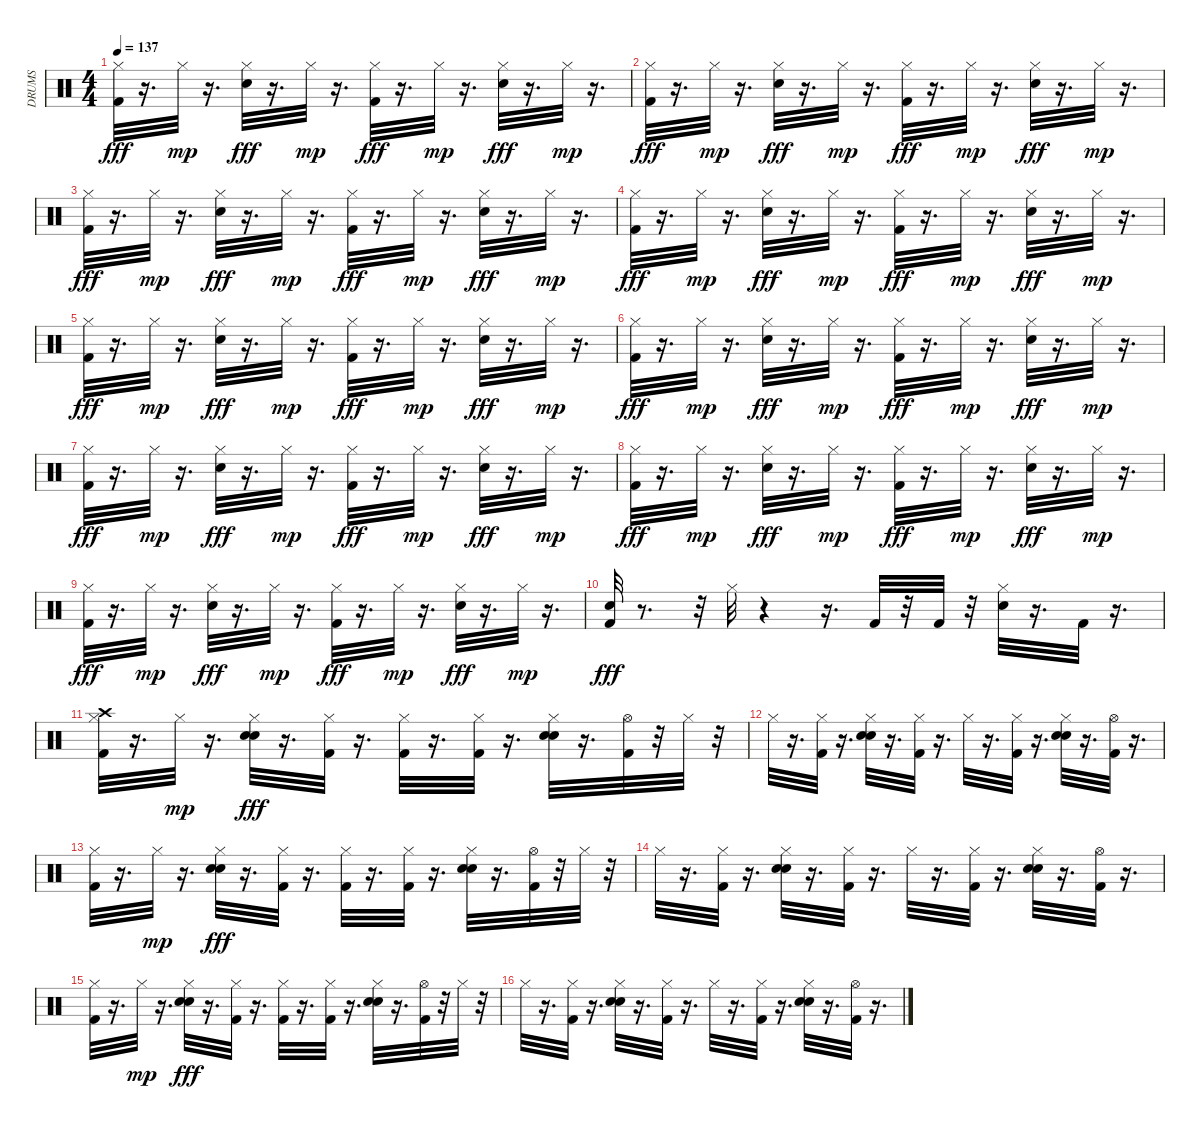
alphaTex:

\track ("DRUMS" "DRUMS") {instrument percussion}
\staff {score}
\articulation defaults
\ts (4 4)
\tempo 137
\clef neutral
\ks c
("Hi-Hat (closed)" "Kick (hit) 2").32{dy fff} r.16{d} "Hi-Hat (closed)".32{dy mp} r.16{d} ("Hi-Hat (closed)" "Snare (hit) 2").32{dy fff} r.16{d} "Hi-Hat (closed)".32{dy mp} r.16{d} ("Hi-Hat (closed)" "Kick (hit) 2").32{dy fff} r.16{d} "Hi-Hat (closed)".32{dy mp} r.16{d} ("Hi-Hat (closed)" "Snare (hit) 2").32{dy fff} r.16{d} "Hi-Hat (closed)".32{dy mp} r.16{d} |
("Hi-Hat (closed)" "Kick (hit) 2").32{dy fff} r.16{d} "Hi-Hat (closed)".32{dy mp} r.16{d} ("Hi-Hat (closed)" "Snare (hit) 2").32{dy fff} r.16{d} "Hi-Hat (closed)".32{dy mp} r.16{d} ("Hi-Hat (closed)" "Kick (hit) 2").32{dy fff} r.16{d} "Hi-Hat (closed)".32{dy mp} r.16{d} ("Hi-Hat (closed)" "Snare (hit) 2").32{dy fff} r.16{d} "Hi-Hat (closed)".32{dy mp} r.16{d} |
("Hi-Hat (closed)" "Kick (hit) 2").32{dy fff} r.16{d} "Hi-Hat (closed)".32{dy mp} r.16{d} ("Hi-Hat (closed)" "Snare (hit) 2").32{dy fff} r.16{d} "Hi-Hat (closed)".32{dy mp} r.16{d} ("Hi-Hat (closed)" "Kick (hit) 2").32{dy fff} r.16{d} "Hi-Hat (closed)".32{dy mp} r.16{d} ("Hi-Hat (closed)" "Snare (hit) 2").32{dy fff} r.16{d} "Hi-Hat (closed)".32{dy mp} r.16{d} |
("Hi-Hat (closed)" "Kick (hit) 2").32{dy fff} r.16{d} "Hi-Hat (closed)".32{dy mp} r.16{d} ("Hi-Hat (closed)" "Snare (hit) 2").32{dy fff} r.16{d} "Hi-Hat (closed)".32{dy mp} r.16{d} ("Hi-Hat (closed)" "Kick (hit) 2").32{dy fff} r.16{d} "Hi-Hat (closed)".32{dy mp} r.16{d} ("Snare (hit) 2" "Hi-Hat (closed)").32{dy fff} r.16{d} "Hi-Hat (closed)".32{dy mp} r.16{d} |
("Hi-Hat (closed)" "Kick (hit) 2").32{dy fff} r.16{d} "Hi-Hat (closed)".32{dy mp} r.16{d} ("Hi-Hat (closed)" "Snare (hit) 2").32{dy fff} r.16{d} "Hi-Hat (closed)".32{dy mp} r.16{d} ("Hi-Hat (closed)" "Kick (hit) 2").32{dy fff} r.16{d} "Hi-Hat (closed)".32{dy mp} r.16{d} ("Hi-Hat (closed)" "Snare (hit) 2").32{dy fff} r.16{d} "Hi-Hat (closed)".32{dy mp} r.16{d} |
("Kick (hit) 2" "Hi-Hat (closed)").32{dy fff} r.16{d} "Hi-Hat (closed)".32{dy mp} r.16{d} ("Hi-Hat (closed)" "Snare (hit) 2").32{dy fff} r.16{d} "Hi-Hat (closed)".32{dy mp} r.16{d} ("Hi-Hat (closed)" "Kick (hit) 2").32{dy fff} r.16{d} "Hi-Hat (closed)".32{dy mp} r.16{d} ("Hi-Hat (closed)" "Snare (hit) 2").32{dy fff} r.16{d} "Hi-Hat (closed)".32{dy mp} r.16{d} |
("Hi-Hat (closed)" "Kick (hit) 2").32{dy fff} r.16{d} "Hi-Hat (closed)".32{dy mp} r.16{d} ("Hi-Hat (closed)" "Snare (hit) 2").32{dy fff} r.16{d} "Hi-Hat (closed)".32{dy mp} r.16{d} ("Kick (hit) 2" "Hi-Hat (closed)").32{dy fff} r.16{d} "Hi-Hat (closed)".32{dy mp} r.16{d} ("Snare (hit) 2" "Hi-Hat (closed)").32{dy fff} r.16{d} "Hi-Hat (closed)".32{dy mp} r.16{d} |
("Hi-Hat (closed)" "Kick (hit) 2").32{dy fff} r.16{d} "Hi-Hat (closed)".32{dy mp} r.16{d} ("Hi-Hat (closed)" "Snare (hit) 2").32{dy fff} r.16{d} "Hi-Hat (closed)".32{dy mp} r.16{d} ("Hi-Hat (closed)" "Kick (hit) 2").32{dy fff} r.16{d} "Hi-Hat (closed)".32{dy mp} r.16{d} ("Hi-Hat (closed)" "Snare (hit) 2").32{dy fff} r.16{d} "Hi-Hat (closed)".32{dy mp} r.16{d} |
("Hi-Hat (closed)" "Kick (hit) 2").32{dy fff} r.16{d} "Hi-Hat (closed)".32{dy mp} r.16{d} ("Hi-Hat (closed)" "Snare (hit) 2").32{dy fff} r.16{d} "Hi-Hat (closed)".32{dy mp} r.16{d} ("Hi-Hat (closed)" "Kick (hit) 2").32{dy fff} r.16{d} "Hi-Hat (closed)".32{dy mp} r.16{d} ("Hi-Hat (closed)" "Snare (hit) 2").32{dy fff} r.16{d} "Hi-Hat (closed)".32{dy mp} r.16{d} |
("Snare (hit) 2" "Kick (hit) 2").32{dy fff} r.8{d} r.32 "Hi-Hat (closed)".32 r.4 r.16{d} "Kick (hit) 2".32 r.32 "Kick (hit) 2".32 r.32 ("Hi-Hat (closed)" "Snare (hit) 2").32 r.16{d} "Kick (hit) 2".32 r.16{d} |
("Crash high (hit)" "Hi-Hat (closed)" "Kick (hit) 2").32 r.16{d} "Hi-Hat (closed)".32{dy mp} r.16{d} ("Hand Clap (hit)" "Hi-Hat (closed)" "Snare (hit) 2").32{dy fff} r.16{d} ("Hi-Hat (closed)" "Kick (hit) 2").32 r.16{d} ("Hi-Hat (closed)" "Kick (hit) 2").32 r.16{d} ("Hi-Hat (closed)" "Kick (hit) 2").32 r.16{d} ("Hand Clap (hit)" "Hi-Hat (closed)" "Snare (hit) 2").32 r.16{d} ("Hi-Hat (open)" "Kick (hit) 2").32 r.32 "Hi-Hat (closed)".32 r.32 |
"Hi-Hat (closed)".32 r.16{d} ("Hi-Hat (closed)" "Kick (hit) 2").32 r.16{d} ("Snare (hit) 2" "Hand Clap (hit)" "Hi-Hat (closed)").32 r.16{d} ("Hi-Hat (closed)" "Kick (hit) 2").32 r.16{d} "Hi-Hat (closed)".32 r.16{d} ("Hi-Hat (closed)" "Kick (hit) 2").32 r.16{d} ("Hand Clap (hit)" "Hi-Hat (closed)" "Snare (hit) 2").32 r.16{d} ("Hi-Hat (open)" "Kick (hit) 2").32 r.16{d} |
("Hi-Hat (closed)" "Kick (hit) 2").32 r.16{d} "Hi-Hat (closed)".32{dy mp} r.16{d} ("Hand Clap (hit)" "Hi-Hat (closed)" "Snare (hit) 2").32{dy fff} r.16{d} ("Hi-Hat (closed)" "Kick (hit) 2").32 r.16{d} ("Hi-Hat (closed)" "Kick (hit) 2").32 r.16{d} ("Hi-Hat (closed)" "Kick (hit) 2").32 r.16{d} ("Hand Clap (hit)" "Hi-Hat (closed)" "Snare (hit) 2").32 r.16{d} ("Hi-Hat (open)" "Kick (hit) 2").32 r.32 "Hi-Hat (closed)".32 r.32 |
"Hi-Hat (closed)".32 r.16{d} ("Hi-Hat (closed)" "Kick (hit) 2").32 r.16{d} ("Hand Clap (hit)" "Hi-Hat (closed)" "Snare (hit) 2").32 r.16{d} ("Hi-Hat (closed)" "Kick (hit) 2").32 r.16{d} "Hi-Hat (closed)".32 r.16{d} ("Hi-Hat (closed)" "Kick (hit) 2").32 r.16{d} ("Hand Clap (hit)" "Hi-Hat (closed)" "Snare (hit) 2").32 r.16{d} ("Hi-Hat (open)" "Kick (hit) 2").32 r.16{d} |
("Hi-Hat (closed)" "Kick (hit) 2").32 r.16{d} "Hi-Hat (closed)".32{dy mp} r.16{d} ("Hand Clap (hit)" "Hi-Hat (closed)" "Snare (hit) 2").32{dy fff} r.16{d} ("Hi-Hat (closed)" "Kick (hit) 2").32 r.16{d} ("Hi-Hat (closed)" "Kick (hit) 2").32 r.16{d} ("Hi-Hat (closed)" "Kick (hit) 2").32 r.16{d} ("Hand Clap (hit)" "Hi-Hat (closed)" "Snare (hit) 2").32 r.16{d} ("Hi-Hat (open)" "Kick (hit) 2").32 r.32 "Hi-Hat (closed)".32 r.32 |
"Hi-Hat (closed)".32 r.16{d} ("Hi-Hat (closed)" "Kick (hit) 2").32 r.16{d} ("Hand Clap (hit)" "Hi-Hat (closed)" "Snare (hit) 2").32 r.16{d} ("Hi-Hat (closed)" "Kick (hit) 2").32 r.16{d} "Hi-Hat (closed)".32 r.16{d} ("Hi-Hat (closed)" "Kick (hit) 2").32 r.16{d} ("Hand Clap (hit)" "Hi-Hat (closed)" "Snare (hit) 2").32 r.16{d} ("Hi-Hat (open)" "Kick (hit) 2").32 r.16{d}
